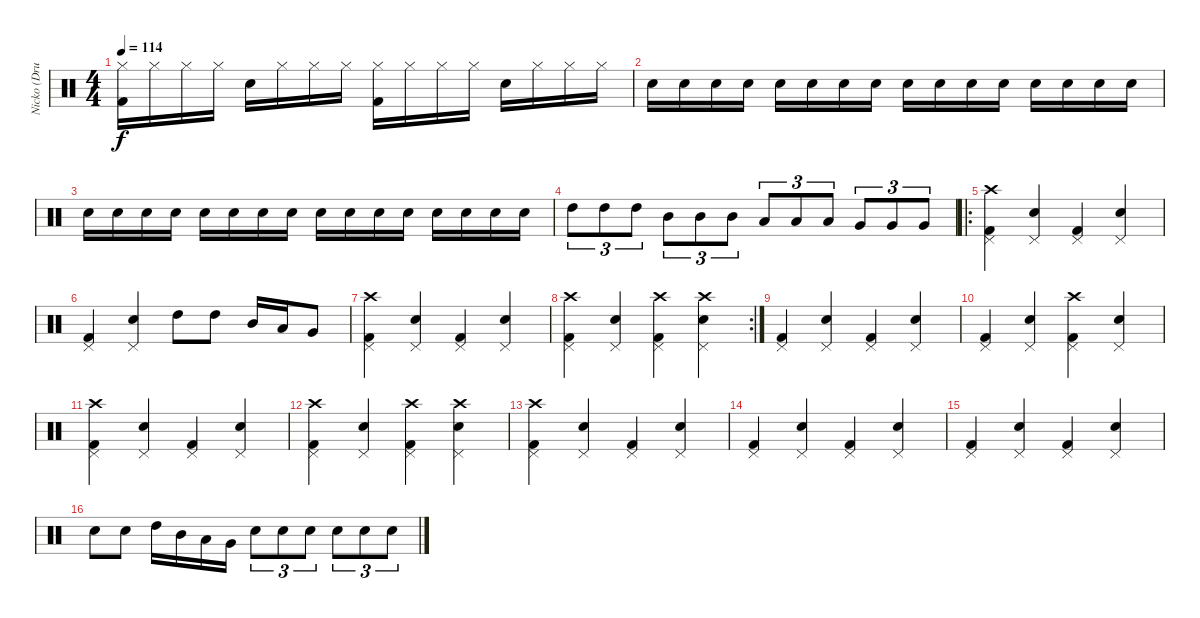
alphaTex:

\track ("Nicko (Drums)" "Nicko (Dru") {instrument percussion}
\staff {score}
\articulation defaults
\ts (4 4)
\tempo 114
\clef neutral
\ks c
("Hi-Hat (closed)" "Kick (hit) 2").16{dy f} "Hi-Hat (closed)".16 "Hi-Hat (closed)".16 "Hi-Hat (closed)".16 "Snare (hit) 2".16 "Hi-Hat (closed)".16 "Hi-Hat (closed)".16 "Hi-Hat (closed)".16 ("Hi-Hat (closed)" "Kick (hit) 2").16 "Hi-Hat (closed)".16 "Hi-Hat (closed)".16 "Hi-Hat (closed)".16 "Snare (hit) 2".16 "Hi-Hat (closed)".16 "Hi-Hat (closed)".16 "Hi-Hat (closed)".16 |
"Snare (hit) 2".16 "Snare (hit) 2".16 "Snare (hit) 2".16 "Snare (hit) 2".16 "Snare (hit) 2".16 "Snare (hit) 2".16 "Snare (hit) 2".16 "Snare (hit) 2".16 "Snare (hit) 2".16 "Snare (hit) 2".16 "Snare (hit) 2".16 "Snare (hit) 2".16 "Snare (hit) 2".16 "Snare (hit) 2".16 "Snare (hit) 2".16 "Snare (hit) 2".16 |
"Snare (hit) 2".16 "Snare (hit) 2".16 "Snare (hit) 2".16 "Snare (hit) 2".16 "Snare (hit) 2".16 "Snare (hit) 2".16 "Snare (hit) 2".16 "Snare (hit) 2".16 "Snare (hit) 2".16 "Snare (hit) 2".16 "Snare (hit) 2".16 "Snare (hit) 2".16 "Snare (hit) 2".16 "Snare (hit) 2".16 "Snare (hit) 2".16 "Snare (hit) 2".16 |
"High Tom (hit)".8{tu (3 2)} "High Tom (hit)".8{tu (3 2)} "High Tom (hit)".8{tu (3 2)} "Mid Tom (hit)".8{tu (3 2)} "Mid Tom (hit)".8{tu (3 2)} "Mid Tom (hit)".8{tu (3 2)} "Low Tom (hit)".8{tu (3 2)} "Low Tom (hit)".8{tu (3 2)} "Low Tom (hit)".8{tu (3 2)} "Very Low Tom (hit)".8{tu (3 2)} "Very Low Tom (hit)".8{tu (3 2)} "Very Low Tom (hit)".8{tu (3 2)} |
\ro
("Pedal Hi-Hat (hit)" "Kick (hit) 2" "Crash high (hit)").4 ("Pedal Hi-Hat (hit)" "Snare (hit) 2").4 ("Pedal Hi-Hat (hit)" "Kick (hit) 2").4 ("Pedal Hi-Hat (hit)" "Snare (hit) 2").4 |
("Pedal Hi-Hat (hit)" "Kick (hit) 2").4 ("Pedal Hi-Hat (hit)" "Snare (hit) 2").4 "High Tom (hit)".8 "High Tom (hit)".8 "Mid Tom (hit)".16 "Low Tom (hit)".16 "Very Low Tom (hit)".8 |
("Pedal Hi-Hat (hit)" "Kick (hit) 2" "Crash high (hit)").4 ("Pedal Hi-Hat (hit)" "Snare (hit) 2").4 ("Pedal Hi-Hat (hit)" "Kick (hit) 2").4 ("Pedal Hi-Hat (hit)" "Snare (hit) 2").4 |
\rc 2
("Pedal Hi-Hat (hit)" "Kick (hit) 2" "Crash high (hit)").4 ("Pedal Hi-Hat (hit)" "Snare (hit) 2").4 ("Pedal Hi-Hat (hit)" "Kick (hit) 2" "Crash high (hit)").4 ("Pedal Hi-Hat (hit)" "Snare (hit) 2" "Crash high (hit)").4 |
("Pedal Hi-Hat (hit)" "Kick (hit) 2").4 ("Pedal Hi-Hat (hit)" "Snare (hit) 2").4 ("Pedal Hi-Hat (hit)" "Kick (hit) 2").4 ("Pedal Hi-Hat (hit)" "Snare (hit) 2").4 |
("Pedal Hi-Hat (hit)" "Kick (hit) 2").4 ("Pedal Hi-Hat (hit)" "Snare (hit) 2").4 ("Pedal Hi-Hat (hit)" "Kick (hit) 2" "Crash high (hit)").4 ("Pedal Hi-Hat (hit)" "Snare (hit) 2").4 |
("Pedal Hi-Hat (hit)" "Kick (hit) 2" "Crash high (hit)").4 ("Pedal Hi-Hat (hit)" "Snare (hit) 2").4 ("Pedal Hi-Hat (hit)" "Kick (hit) 2").4 ("Pedal Hi-Hat (hit)" "Snare (hit) 2").4 |
("Pedal Hi-Hat (hit)" "Kick (hit) 2" "Crash high (hit)").4 ("Pedal Hi-Hat (hit)" "Snare (hit) 2").4 ("Pedal Hi-Hat (hit)" "Kick (hit) 2" "Crash high (hit)").4 ("Pedal Hi-Hat (hit)" "Snare (hit) 2" "Crash high (hit)").4 |
("Pedal Hi-Hat (hit)" "Kick (hit) 2" "Crash high (hit)").4 ("Pedal Hi-Hat (hit)" "Snare (hit) 2").4 ("Pedal Hi-Hat (hit)" "Kick (hit) 2").4 ("Pedal Hi-Hat (hit)" "Snare (hit) 2").4 |
("Pedal Hi-Hat (hit)" "Kick (hit) 2").4 ("Pedal Hi-Hat (hit)" "Snare (hit) 2").4 ("Pedal Hi-Hat (hit)" "Kick (hit) 2").4 ("Pedal Hi-Hat (hit)" "Snare (hit) 2").4 |
("Pedal Hi-Hat (hit)" "Kick (hit) 2").4 ("Pedal Hi-Hat (hit)" "Snare (hit) 2").4 ("Pedal Hi-Hat (hit)" "Kick (hit) 2").4 ("Pedal Hi-Hat (hit)" "Snare (hit) 2").4 |
"Snare (hit) 2".8 "Snare (hit) 2".8 "High Tom (hit)".16 "Mid Tom (hit)".16 "Low Tom (hit)".16 "Very Low Tom (hit)".16 "Snare (hit) 2".8{tu (3 2)} "Snare (hit) 2".8{tu (3 2)} "Snare (hit) 2".8{tu (3 2)} "Snare (hit) 2".8{tu (3 2)} "Snare (hit) 2".8{tu (3 2)} "Snare (hit) 2".8{tu (3 2)}
